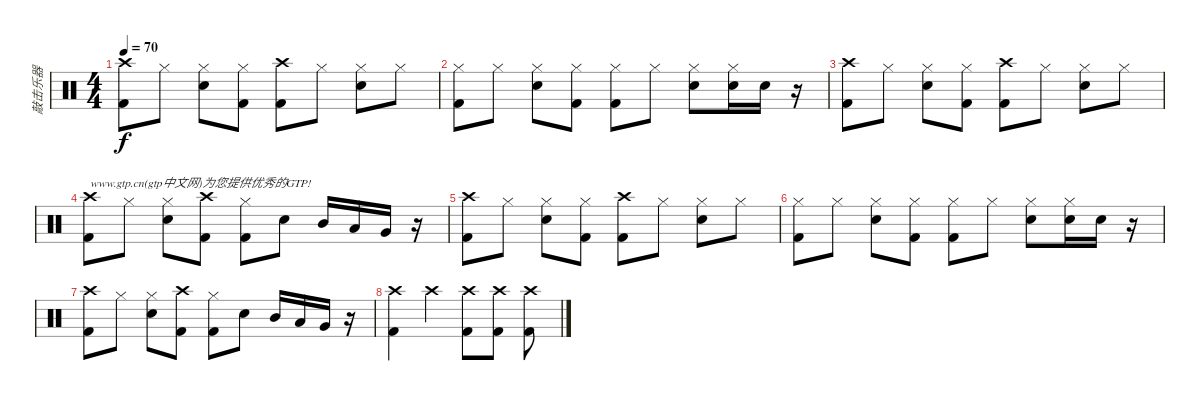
\track ("敲击乐器" "敲击乐器") {instrument percussion}
\staff {score}
\articulation defaults
\ts (4 4)
\tempo 70
\clef neutral
\ks c
("Crash high (hit)" "Kick (hit) 2").8{dy f} "Hi-Hat (closed)".8 ("Hi-Hat (closed)" "Electric Snare (hit)").8 ("Hi-Hat (closed)" "Kick (hit) 2").8 ("Crash high (hit)" "Kick (hit) 2").8 "Hi-Hat (closed)".8 ("Hi-Hat (closed)" "Electric Snare (hit)").8 "Hi-Hat (closed)".8 |
("Hi-Hat (closed)" "Kick (hit) 2").8 "Hi-Hat (closed)".8 ("Hi-Hat (closed)" "Electric Snare (hit)").8 ("Hi-Hat (closed)" "Kick (hit) 2").8 ("Hi-Hat (closed)" "Kick (hit) 2").8 "Hi-Hat (closed)".8 ("Hi-Hat (closed)" "Electric Snare (hit)").8 ("Hi-Hat (closed)" "Electric Snare (hit)").16 "Electric Snare (hit)".16 r.16 |
("Crash high (hit)" "Kick (hit) 2").8 "Hi-Hat (closed)".8 ("Hi-Hat (closed)" "Electric Snare (hit)").8 ("Hi-Hat (closed)" "Kick (hit) 2").8 ("Crash high (hit)" "Kick (hit) 2").8 "Hi-Hat (closed)".8 ("Hi-Hat (closed)" "Electric Snare (hit)").8 "Hi-Hat (closed)".8 |
("Crash high (hit)" "Kick (hit) 2").8{txt "www.gtp.cn(gtp中文网)为您提供优秀的GTP!"} "Hi-Hat (closed)".8 ("Hi-Hat (closed)" "Electric Snare (hit)").8 ("Crash high (hit)" "Kick (hit) 2").8 ("Hi-Hat (closed)" "Kick (hit) 2").8 "Electric Snare (hit)".8 "Mid Tom (hit)".16 "Low Tom (hit)".16 "Very Low Tom (hit)".16 r.16 |
("Crash high (hit)" "Kick (hit) 2").8 "Hi-Hat (closed)".8 ("Hi-Hat (closed)" "Electric Snare (hit)").8 ("Hi-Hat (closed)" "Kick (hit) 2").8 ("Crash high (hit)" "Kick (hit) 2").8 "Hi-Hat (closed)".8 ("Hi-Hat (closed)" "Electric Snare (hit)").8 "Hi-Hat (closed)".8 |
("Hi-Hat (closed)" "Kick (hit) 2").8 "Hi-Hat (closed)".8 ("Hi-Hat (closed)" "Electric Snare (hit)").8 ("Hi-Hat (closed)" "Kick (hit) 2").8 ("Hi-Hat (closed)" "Kick (hit) 2").8 "Hi-Hat (closed)".8 ("Hi-Hat (closed)" "Electric Snare (hit)").8 ("Hi-Hat (closed)" "Electric Snare (hit)").16 "Electric Snare (hit)".16 r.16 |
("Crash high (hit)" "Kick (hit) 2").8 "Hi-Hat (closed)".8 ("Hi-Hat (closed)" "Electric Snare (hit)").8 ("Crash high (hit)" "Kick (hit) 2").8 ("Hi-Hat (closed)" "Kick (hit) 2").8 "Electric Snare (hit)".8 "Mid Tom (hit)".16 "Low Tom (hit)".16 "Very Low Tom (hit)".16 r.16 |
("Crash high (hit)" "Kick (hit) 2").4 "Crash high (hit)".4 ("Crash high (hit)" "Kick (hit) 2").8 ("Crash high (hit)" "Kick (hit) 2").8 ("Crash high (hit)" "Kick (hit) 2").8
